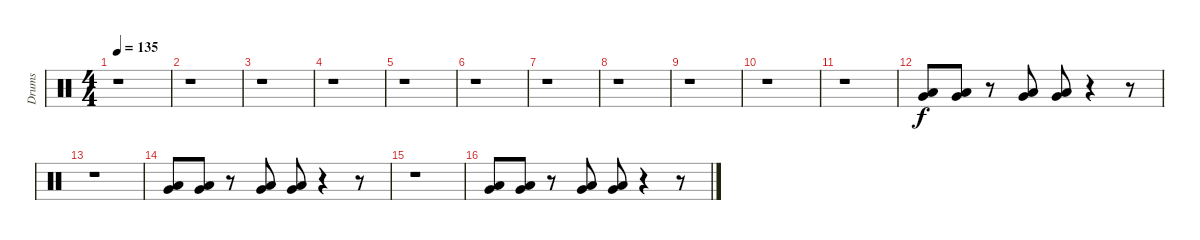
\track ("Drums" "Drums") {instrument percussion}
\staff {score}
\articulation defaults
\ts (4 4)
\tempo 135
\clef neutral
\ks c
r.1{dy f} |
r.1 |
r.1 |
r.1 |
r.1 |
r.1 |
r.1 |
r.1 |
r.1 |
r.1 |
r.1 |
("Very Low Tom (hit)" "Low Tom (hit)").8 ("Very Low Tom (hit)" "Low Tom (hit)").8 r.8 ("Very Low Tom (hit)" "Low Tom (hit)").8 ("Very Low Tom (hit)" "Low Tom (hit)").8 r.4 r.8 |
r.1 |
("Very Low Tom (hit)" "Low Tom (hit)").8 ("Very Low Tom (hit)" "Low Tom (hit)").8 r.8 ("Very Low Tom (hit)" "Low Tom (hit)").8 ("Very Low Tom (hit)" "Low Tom (hit)").8 r.4 r.8 |
r.1 |
("Very Low Tom (hit)" "Low Tom (hit)").8 ("Very Low Tom (hit)" "Low Tom (hit)").8 r.8 ("Very Low Tom (hit)" "Low Tom (hit)").8 ("Very Low Tom (hit)" "Low Tom (hit)").8 r.4 r.8
